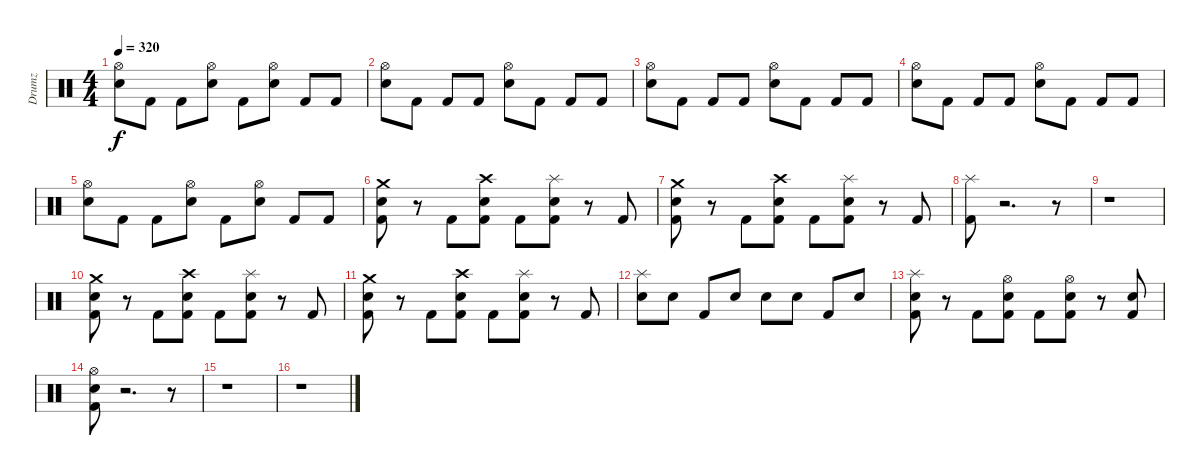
\track ("Drumz" "Drumz") {instrument percussion}
\staff {score}
\articulation defaults
\ts (4 4)
\tempo 320
\clef neutral
\ks c
("Hi-Hat (open)" "Snare (hit) 2").8{dy f} "Kick (hit) 2".8 "Kick (hit) 2".8 ("Hi-Hat (open)" "Snare (hit) 2").8 "Kick (hit) 2".8 ("Hi-Hat (open)" "Snare (hit) 2").8 "Kick (hit) 2".8 "Kick (hit) 2".8 |
("Snare (hit) 2" "Hi-Hat (open)").8 "Kick (hit) 2".8 "Kick (hit) 2".8 "Kick (hit) 2".8 ("Snare (hit) 2" "Hi-Hat (open)").8 "Kick (hit) 2".8 "Kick (hit) 2".8 "Kick (hit) 2".8 |
("Snare (hit) 2" "Hi-Hat (open)").8 "Kick (hit) 2".8 "Kick (hit) 2".8 "Kick (hit) 2".8 ("Snare (hit) 2" "Hi-Hat (open)").8 "Kick (hit) 2".8 "Kick (hit) 2".8 "Kick (hit) 2".8 |
("Hi-Hat (open)" "Snare (hit) 2").8 "Kick (hit) 2".8 "Kick (hit) 2".8 "Kick (hit) 2".8 ("Hi-Hat (open)" "Snare (hit) 2").8 "Kick (hit) 2".8 "Kick (hit) 2".8 "Kick (hit) 2".8 |
("Hi-Hat (open)" "Snare (hit) 2").8 "Kick (hit) 2".8 "Kick (hit) 2".8 ("Hi-Hat (open)" "Snare (hit) 2").8 "Kick (hit) 2".8 ("Hi-Hat (open)" "Snare (hit) 2").8 "Kick (hit) 2".8 "Kick (hit) 2".8 |
("Crash medium (hit)" "Snare (hit) 2" "Kick (hit) 2").8 r.8 "Kick (hit) 2".8 ("Crash high (hit)" "Snare (hit) 2" "Kick (hit) 2").8 "Kick (hit) 2".8 ("Splash (hit)" "Snare (hit) 2" "Kick (hit) 2").8 r.8 "Kick (hit) 2".8 |
("Crash medium (hit)" "Snare (hit) 2" "Kick (hit) 2").8 r.8 "Kick (hit) 2".8 ("Crash high (hit)" "Snare (hit) 2" "Kick (hit) 2").8 "Kick (hit) 2".8 ("Splash (hit)" "Snare (hit) 2" "Kick (hit) 2").8 r.8 "Kick (hit) 2".8 |
("Kick (hit) 2" "Splash (hit)").8 r.2{d} r.8 |
r.1 |
("Crash medium (hit)" "Snare (hit) 2" "Kick (hit) 2").8 r.8 "Kick (hit) 2".8 ("Crash high (hit)" "Snare (hit) 2" "Kick (hit) 2").8 "Kick (hit) 2".8 ("Splash (hit)" "Snare (hit) 2" "Kick (hit) 2").8 r.8 "Kick (hit) 2".8 |
("Crash medium (hit)" "Snare (hit) 2" "Kick (hit) 2").8 r.8 "Kick (hit) 2".8 ("Crash high (hit)" "Snare (hit) 2" "Kick (hit) 2").8 "Kick (hit) 2".8 ("Splash (hit)" "Snare (hit) 2" "Kick (hit) 2").8 r.8 "Kick (hit) 2".8 |
("Snare (hit) 2" "Splash (hit)").8 "Snare (hit) 2".8 "Kick (hit) 2".8 "Snare (hit) 2".8 "Snare (hit) 2".8 "Snare (hit) 2".8 "Kick (hit) 2".8 "Snare (hit) 2".8 |
("Snare (hit) 2" "Kick (hit) 2" "Splash (hit)").8 r.8 "Kick (hit) 2".8 ("Snare (hit) 2" "Kick (hit) 2" "Hi-Hat (open)").8 "Kick (hit) 2".8 ("Snare (hit) 2" "Kick (hit) 2" "Hi-Hat (open)").8 r.8 ("Snare (hit) 2" "Kick (hit) 2").8 |
("Snare (hit) 2" "Kick (hit) 2" "Hi-Hat (open)").8 r.2{d} r.8 |
r.1 |
r.1
